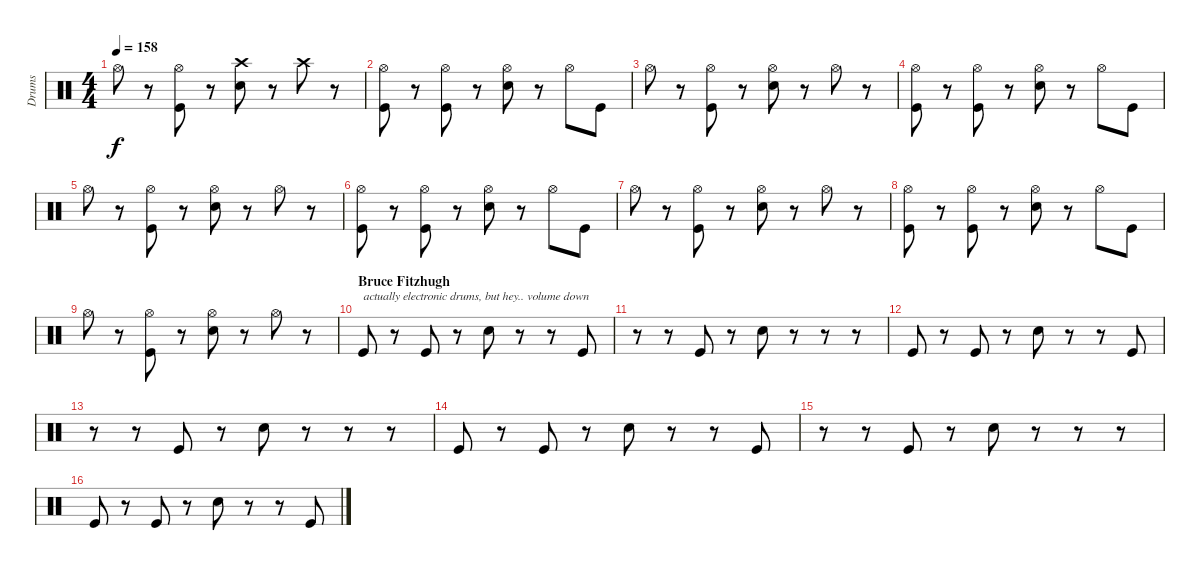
\track ("Drums" "Drums") {instrument percussion}
\staff {score}
\articulation defaults
\ts (4 4)
\tempo 158
\clef neutral
\ks c "Hi-Hat (open)".8{dy f}
r.8 ("Hi-Hat (open)" "Kick (hit)").8 r.8 ("Crash high (hit)" "Snare (hit) 2").8 r.8 "Crash high (hit)".8 r.8 |
("Hi-Hat (open)" "Kick (hit)").8 r.8 ("Hi-Hat (open)" "Kick (hit)").8 r.8 ("Hi-Hat (open)" "Snare (hit) 2").8 r.8 "Hi-Hat (open)".8 "Kick (hit)".8 |
"Hi-Hat (open)".8 r.8 ("Hi-Hat (open)" "Kick (hit)").8 r.8 ("Hi-Hat (open)" "Snare (hit) 2").8 r.8 "Hi-Hat (open)".8 r.8 |
("Hi-Hat (open)" "Kick (hit)").8 r.8 ("Hi-Hat (open)" "Kick (hit)").8 r.8 ("Hi-Hat (open)" "Snare (hit) 2").8 r.8 "Hi-Hat (open)".8 "Kick (hit)".8 |
"Hi-Hat (open)".8 r.8 ("Hi-Hat (open)" "Kick (hit)").8 r.8 ("Hi-Hat (open)" "Snare (hit) 2").8 r.8 "Hi-Hat (open)".8 r.8 |
("Hi-Hat (open)" "Kick (hit)").8 r.8 ("Hi-Hat (open)" "Kick (hit)").8 r.8 ("Hi-Hat (open)" "Snare (hit) 2").8 r.8 "Hi-Hat (open)".8 "Kick (hit)".8 |
"Hi-Hat (open)".8 r.8 ("Hi-Hat (open)" "Kick (hit)").8 r.8 ("Hi-Hat (open)" "Snare (hit) 2").8 r.8 "Hi-Hat (open)".8 r.8 |
("Hi-Hat (open)" "Kick (hit)").8 r.8 ("Hi-Hat (open)" "Kick (hit)").8 r.8 ("Hi-Hat (open)" "Snare (hit) 2").8 r.8 "Hi-Hat (open)".8 "Kick (hit)".8 |
"Hi-Hat (open)".8 r.8 ("Hi-Hat (open)" "Kick (hit)").8 r.8 ("Hi-Hat (open)" "Snare (hit) 2").8 r.8 "Hi-Hat (open)".8 r.8 |
\section ("" "Bruce Fitzhugh")
"Kick (hit)".8{txt "actually electronic drums, but hey.. volume down" volume 8} r.8 "Kick (hit)".8 r.8 "Snare (hit) 2".8 r.8 r.8 "Kick (hit)".8 |
r.8 r.8 "Kick (hit)".8 r.8 "Snare (hit) 2".8 r.8 r.8 r.8 |
"Kick (hit)".8 r.8 "Kick (hit)".8 r.8 "Snare (hit) 2".8 r.8 r.8 "Kick (hit)".8 |
r.8 r.8 "Kick (hit)".8 r.8 "Snare (hit) 2".8 r.8 r.8 r.8 |
"Kick (hit)".8 r.8 "Kick (hit)".8 r.8 "Snare (hit) 2".8 r.8 r.8 "Kick (hit)".8 |
r.8 r.8 "Kick (hit)".8 r.8 "Snare (hit) 2".8 r.8 r.8 r.8 |
"Kick (hit)".8 r.8 "Kick (hit)".8 r.8 "Snare (hit) 2".8 r.8 r.8 "Kick (hit)".8
